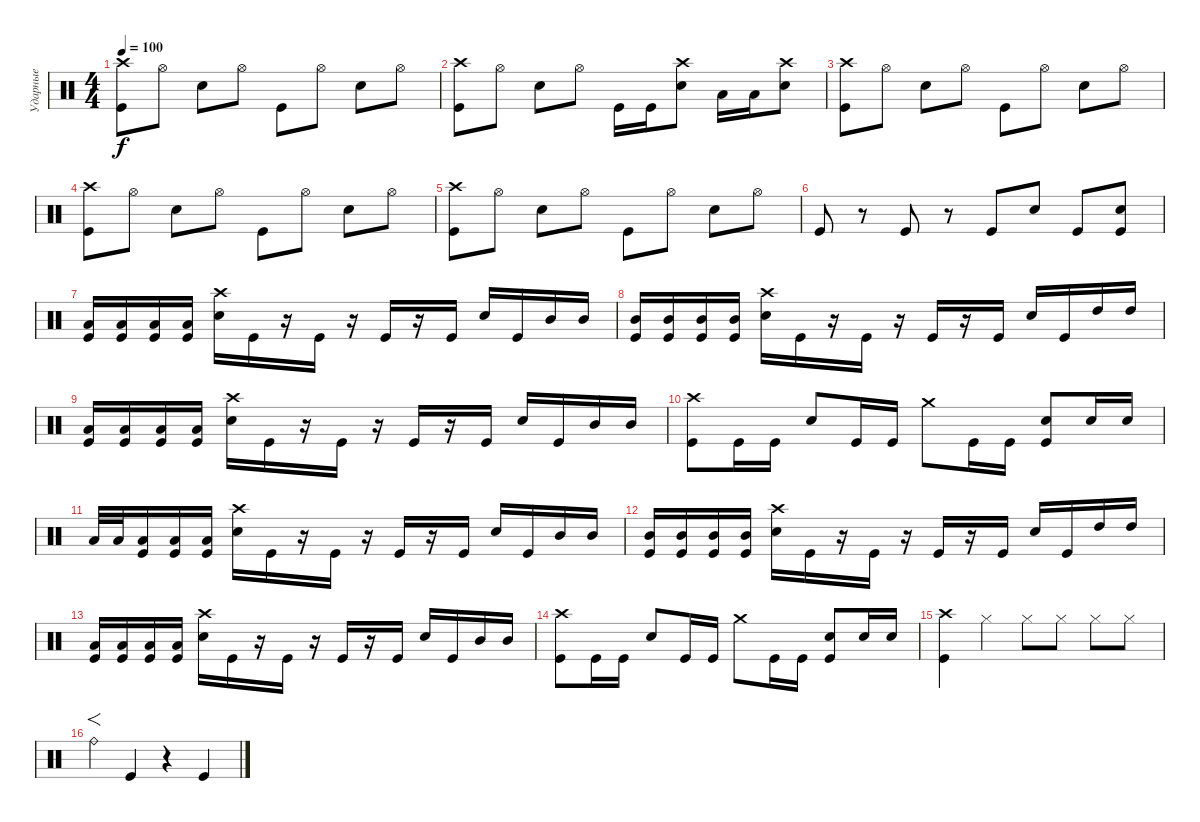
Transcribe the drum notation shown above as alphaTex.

\track ("Ударные" "Ударные") {instrument percussion}
\staff {score}
\articulation defaults
\ts (4 4)
\tempo 100
\clef neutral
\ks c
("Crash high (hit)" "Kick (hit)").8{dy f} "Hi-Hat (open)".8 "Electric Snare (hit)".8 "Hi-Hat (open)".8 "Kick (hit)".8 "Hi-Hat (open)".8 "Electric Snare (hit)".8 "Hi-Hat (open)".8 |
("Crash high (hit)" "Kick (hit)").8 "Hi-Hat (open)".8 "Electric Snare (hit)".8 "Hi-Hat (open)".8 "Kick (hit)".16 "Kick (hit)".16 ("Crash high (hit)" "Electric Snare (hit)").8 "Low Tom (hit)".16 "Low Tom (hit)".16 ("Crash high (hit)" "Electric Snare (hit)").8 |
("Crash high (hit)" "Kick (hit)").8 "Hi-Hat (open)".8 "Electric Snare (hit)".8 "Hi-Hat (open)".8 "Kick (hit)".8 "Hi-Hat (open)".8 "Electric Snare (hit)".8 "Hi-Hat (open)".8 |
("Crash high (hit)" "Kick (hit)").8 "Hi-Hat (open)".8 "Electric Snare (hit)".8 "Hi-Hat (open)".8 "Kick (hit)".8 "Hi-Hat (open)".8 "Electric Snare (hit)".8 "Hi-Hat (open)".8 |
("Crash high (hit)" "Kick (hit)").8 "Hi-Hat (open)".8 "Electric Snare (hit)".8 "Hi-Hat (open)".8 "Kick (hit)".8 "Hi-Hat (open)".8 "Electric Snare (hit)".8 "Hi-Hat (open)".8 |
"Kick (hit)".8 r.8 "Kick (hit)".8 r.8 "Kick (hit)".8 "Electric Snare (hit)".8 "Kick (hit)".8 ("Electric Snare (hit)" "Kick (hit)").8 |
("Low Tom (hit)" "Kick (hit)").16 ("Low Tom (hit)" "Kick (hit)").16 ("Low Tom (hit)" "Kick (hit)").16 ("Low Tom (hit)" "Kick (hit)").16 ("Crash high (hit)" "Electric Snare (hit)").16 "Kick (hit)".16 r.16 "Kick (hit)".16 r.16 "Kick (hit)".16 r.16 "Kick (hit)".16 "Electric Snare (hit)".16 "Kick (hit)".16 "Mid Tom (hit)".16 "Mid Tom (hit)".16 |
("Mid Tom (hit)" "Kick (hit)").16 ("Mid Tom (hit)" "Kick (hit)").16 ("Mid Tom (hit)" "Kick (hit)").16 ("Mid Tom (hit)" "Kick (hit)").16 ("Crash high (hit)" "Electric Snare (hit)").16 "Kick (hit)".16 r.16 "Kick (hit)".16 r.16 "Kick (hit)".16 r.16 "Kick (hit)".16 "Electric Snare (hit)".16 "Kick (hit)".16 "High Tom (hit)".16 "High Tom (hit)".16 |
("Low Tom (hit)" "Kick (hit)").16 ("Low Tom (hit)" "Kick (hit)").16 ("Low Tom (hit)" "Kick (hit)").16 ("Low Tom (hit)" "Kick (hit)").16 ("Crash high (hit)" "Electric Snare (hit)").16 "Kick (hit)".16 r.16 "Kick (hit)".16 r.16 "Kick (hit)".16 r.16 "Kick (hit)".16 "Electric Snare (hit)".16 "Kick (hit)".16 "Mid Tom (hit)".16 "Mid Tom (hit)".16 |
("Crash high (hit)" "Kick (hit)").8 "Kick (hit)".16 "Kick (hit)".16 "Electric Snare (hit)".8 "Kick (hit)".16 "Kick (hit)".16 "Crash medium (hit)".8 "Kick (hit)".16 "Kick (hit)".16 ("Electric Snare (hit)" "Kick (hit)").8 "Electric Snare (hit)".16 "Electric Snare (hit)".16 |
"Low Tom (hit)".32 "Low Tom (hit)".32 ("Low Tom (hit)" "Kick (hit)").16 ("Low Tom (hit)" "Kick (hit)").16 ("Low Tom (hit)" "Kick (hit)").16 ("Crash high (hit)" "Electric Snare (hit)").16 "Kick (hit)".16 r.16 "Kick (hit)".16 r.16 "Kick (hit)".16 r.16 "Kick (hit)".16 "Electric Snare (hit)".16 "Kick (hit)".16 "Mid Tom (hit)".16 "Mid Tom (hit)".16 |
("Mid Tom (hit)" "Kick (hit)").16 ("Mid Tom (hit)" "Kick (hit)").16 ("Mid Tom (hit)" "Kick (hit)").16 ("Mid Tom (hit)" "Kick (hit)").16 ("Crash high (hit)" "Electric Snare (hit)").16 "Kick (hit)".16 r.16 "Kick (hit)".16 r.16 "Kick (hit)".16 r.16 "Kick (hit)".16 "Electric Snare (hit)".16 "Kick (hit)".16 "High Tom (hit)".16 "High Tom (hit)".16 |
("Low Tom (hit)" "Kick (hit)").16 ("Low Tom (hit)" "Kick (hit)").16 ("Low Tom (hit)" "Kick (hit)").16 ("Low Tom (hit)" "Kick (hit)").16 ("Crash high (hit)" "Electric Snare (hit)").16 "Kick (hit)".16 r.16 "Kick (hit)".16 r.16 "Kick (hit)".16 r.16 "Kick (hit)".16 "Electric Snare (hit)".16 "Kick (hit)".16 "Mid Tom (hit)".16 "Mid Tom (hit)".16 |
("Crash high (hit)" "Kick (hit)").8 "Kick (hit)".16 "Kick (hit)".16 "Electric Snare (hit)".8 "Kick (hit)".16 "Kick (hit)".16 "Crash medium (hit)".8 "Kick (hit)".16 "Kick (hit)".16 ("Electric Snare (hit)" "Kick (hit)").8 "Electric Snare (hit)".16 "Electric Snare (hit)".16 |
("Crash high (hit)" "Kick (hit)").4 "Hi-Hat (closed)".4 "Hi-Hat (closed)".8 "Hi-Hat (closed)".8 "Hi-Hat (closed)".8 "Hi-Hat (closed)".8 |
"Ride (bell)".4{f} "Kick (hit)".4 r.4 "Kick (hit)".4
